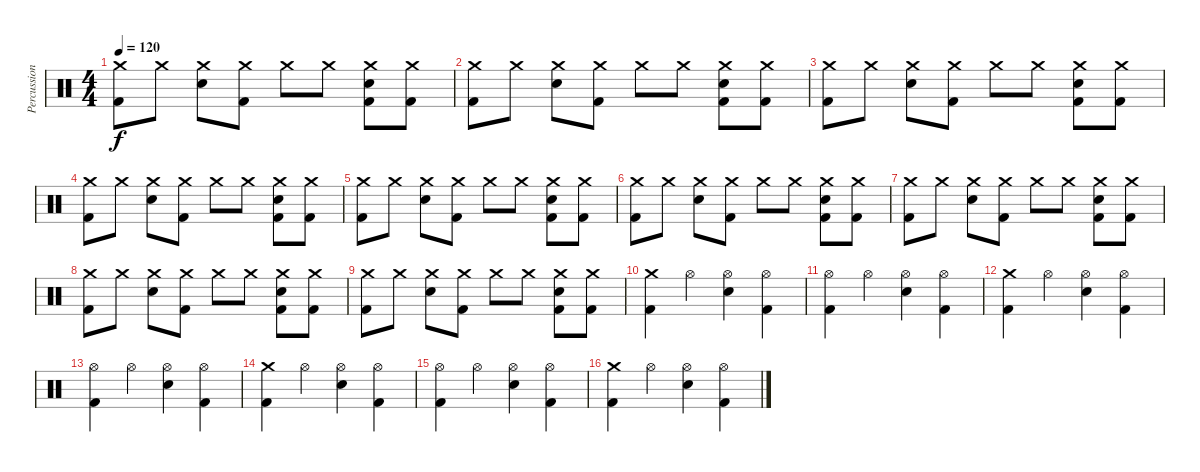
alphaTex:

\track ("Percussion" "Percussion") {instrument percussion}
\staff {score}
\articulation defaults
\ts (4 4)
\tempo 120
\clef neutral
\ks c
("Crash medium (hit)" "Kick (hit) 2").8{dy f} "Crash medium (hit)".8 ("Crash medium (hit)" "Electric Snare (hit)").8 ("Crash medium (hit)" "Kick (hit) 2").8 "Crash medium (hit)".8 "Crash medium (hit)".8 ("Crash medium (hit)" "Electric Snare (hit)" "Kick (hit) 2").8 ("Crash medium (hit)" "Kick (hit) 2").8 |
("Crash medium (hit)" "Kick (hit) 2").8 "Crash medium (hit)".8 ("Crash medium (hit)" "Electric Snare (hit)").8 ("Crash medium (hit)" "Kick (hit) 2").8 "Crash medium (hit)".8 "Crash medium (hit)".8 ("Crash medium (hit)" "Electric Snare (hit)" "Kick (hit) 2").8 ("Crash medium (hit)" "Kick (hit) 2").8 |
("Crash medium (hit)" "Kick (hit) 2").8 "Crash medium (hit)".8 ("Crash medium (hit)" "Electric Snare (hit)").8 ("Crash medium (hit)" "Kick (hit) 2").8 "Crash medium (hit)".8 "Crash medium (hit)".8 ("Crash medium (hit)" "Electric Snare (hit)" "Kick (hit) 2").8 ("Crash medium (hit)" "Kick (hit) 2").8 |
("Crash medium (hit)" "Kick (hit) 2").8 "Crash medium (hit)".8 ("Crash medium (hit)" "Electric Snare (hit)").8 ("Crash medium (hit)" "Kick (hit) 2").8 "Crash medium (hit)".8 "Crash medium (hit)".8 ("Crash medium (hit)" "Electric Snare (hit)" "Kick (hit) 2").8 ("Crash medium (hit)" "Kick (hit) 2").8 |
("Crash medium (hit)" "Kick (hit) 2").8 "Crash medium (hit)".8 ("Crash medium (hit)" "Electric Snare (hit)").8 ("Crash medium (hit)" "Kick (hit) 2").8 "Crash medium (hit)".8 "Crash medium (hit)".8 ("Crash medium (hit)" "Electric Snare (hit)" "Kick (hit) 2").8 ("Crash medium (hit)" "Kick (hit) 2").8 |
("Crash medium (hit)" "Kick (hit) 2").8 "Crash medium (hit)".8 ("Crash medium (hit)" "Electric Snare (hit)").8 ("Crash medium (hit)" "Kick (hit) 2").8 "Crash medium (hit)".8 "Crash medium (hit)".8 ("Crash medium (hit)" "Electric Snare (hit)" "Kick (hit) 2").8 ("Crash medium (hit)" "Kick (hit) 2").8 |
("Crash medium (hit)" "Kick (hit) 2").8 "Crash medium (hit)".8 ("Crash medium (hit)" "Electric Snare (hit)").8 ("Crash medium (hit)" "Kick (hit) 2").8 "Crash medium (hit)".8 "Crash medium (hit)".8 ("Crash medium (hit)" "Electric Snare (hit)" "Kick (hit) 2").8 ("Crash medium (hit)" "Kick (hit) 2").8 |
("Crash medium (hit)" "Kick (hit) 2").8 "Crash medium (hit)".8 ("Crash medium (hit)" "Electric Snare (hit)").8 ("Crash medium (hit)" "Kick (hit) 2").8 "Crash medium (hit)".8 "Crash medium (hit)".8 ("Crash medium (hit)" "Electric Snare (hit)" "Kick (hit) 2").8 ("Crash medium (hit)" "Kick (hit) 2").8 |
("Crash medium (hit)" "Kick (hit) 2").8 "Crash medium (hit)".8 ("Crash medium (hit)" "Electric Snare (hit)").8 ("Crash medium (hit)" "Kick (hit) 2").8 "Crash medium (hit)".8 "Crash medium (hit)".8 ("Crash medium (hit)" "Electric Snare (hit)" "Kick (hit) 2").8 ("Crash medium (hit)" "Kick (hit) 2").8 |
("Crash medium (hit)" "Kick (hit) 2").4 "Hi-Hat (open)".4 ("Hi-Hat (open)" "Electric Snare (hit)").4 ("Hi-Hat (open)" "Kick (hit) 2").4 |
("Hi-Hat (open)" "Kick (hit) 2").4 "Hi-Hat (open)".4 ("Hi-Hat (open)" "Electric Snare (hit)").4 ("Hi-Hat (open)" "Kick (hit) 2").4 |
("Crash medium (hit)" "Kick (hit) 2").4 "Hi-Hat (open)".4 ("Hi-Hat (open)" "Electric Snare (hit)").4 ("Hi-Hat (open)" "Kick (hit) 2").4 |
("Hi-Hat (open)" "Kick (hit) 2").4 "Hi-Hat (open)".4 ("Hi-Hat (open)" "Electric Snare (hit)").4 ("Hi-Hat (open)" "Kick (hit) 2").4 |
("Crash medium (hit)" "Kick (hit) 2").4 "Hi-Hat (open)".4 ("Hi-Hat (open)" "Electric Snare (hit)").4 ("Hi-Hat (open)" "Kick (hit) 2").4 |
("Hi-Hat (open)" "Kick (hit) 2").4 "Hi-Hat (open)".4 ("Hi-Hat (open)" "Electric Snare (hit)").4 ("Hi-Hat (open)" "Kick (hit) 2").4 |
("Crash medium (hit)" "Kick (hit) 2").4 "Hi-Hat (open)".4 ("Hi-Hat (open)" "Electric Snare (hit)").4 ("Hi-Hat (open)" "Kick (hit) 2").4
